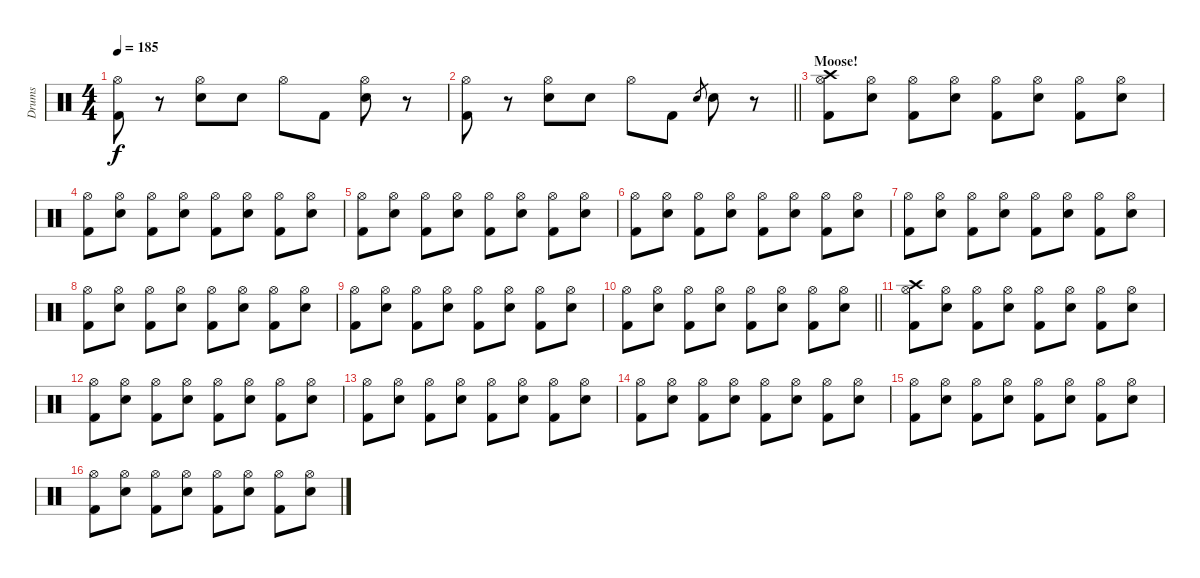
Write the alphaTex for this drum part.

\track ("Drums" "Drums") {instrument percussion}
\staff {score}
\articulation defaults
\ts (4 4)
\tempo 185
\clef neutral
\ks c
("Hi-Hat (open)" "Kick (hit) 2").8{dy f} r.8 ("Hi-Hat (open)" "Snare (hit) 2").8 "Snare (hit) 2".8 "Hi-Hat (open)".8 "Kick (hit) 2".8 ("Hi-Hat (open)" "Snare (hit) 2").8 r.8 |
\barLineRight lightlight
("Hi-Hat (open)" "Kick (hit) 2").8 r.8 ("Hi-Hat (open)" "Snare (hit) 2").8 "Snare (hit) 2".8 "Hi-Hat (open)".8 "Kick (hit) 2".8 "Snare (hit) 2".8{gr} "Snare (hit) 2".8 r.8 |
\section ("" "Moose!")
("Hi-Hat (open)" "Crash high (hit)" "Kick (hit) 2").8 ("Hi-Hat (open)" "Snare (hit) 2").8 ("Hi-Hat (open)" "Kick (hit) 2").8 ("Hi-Hat (open)" "Snare (hit) 2").8 ("Hi-Hat (open)" "Kick (hit) 2").8 ("Hi-Hat (open)" "Snare (hit) 2").8 ("Hi-Hat (open)" "Kick (hit) 2").8 ("Hi-Hat (open)" "Snare (hit) 2").8 |
("Hi-Hat (open)" "Kick (hit) 2").8 ("Hi-Hat (open)" "Snare (hit) 2").8 ("Hi-Hat (open)" "Kick (hit) 2").8 ("Hi-Hat (open)" "Snare (hit) 2").8 ("Hi-Hat (open)" "Kick (hit) 2").8 ("Hi-Hat (open)" "Snare (hit) 2").8 ("Hi-Hat (open)" "Kick (hit) 2").8 ("Hi-Hat (open)" "Snare (hit) 2").8 |
("Hi-Hat (open)" "Kick (hit) 2").8 ("Hi-Hat (open)" "Snare (hit) 2").8 ("Hi-Hat (open)" "Kick (hit) 2").8 ("Hi-Hat (open)" "Snare (hit) 2").8 ("Hi-Hat (open)" "Kick (hit) 2").8 ("Hi-Hat (open)" "Snare (hit) 2").8 ("Hi-Hat (open)" "Kick (hit) 2").8 ("Hi-Hat (open)" "Snare (hit) 2").8 |
("Hi-Hat (open)" "Kick (hit) 2").8 ("Hi-Hat (open)" "Snare (hit) 2").8 ("Hi-Hat (open)" "Kick (hit) 2").8 ("Hi-Hat (open)" "Snare (hit) 2").8 ("Hi-Hat (open)" "Kick (hit) 2").8 ("Hi-Hat (open)" "Snare (hit) 2").8 ("Hi-Hat (open)" "Kick (hit) 2").8 ("Hi-Hat (open)" "Snare (hit) 2").8 |
("Hi-Hat (open)" "Kick (hit) 2").8 ("Hi-Hat (open)" "Snare (hit) 2").8 ("Hi-Hat (open)" "Kick (hit) 2").8 ("Hi-Hat (open)" "Snare (hit) 2").8 ("Hi-Hat (open)" "Kick (hit) 2").8 ("Hi-Hat (open)" "Snare (hit) 2").8 ("Hi-Hat (open)" "Kick (hit) 2").8 ("Hi-Hat (open)" "Snare (hit) 2").8 |
("Hi-Hat (open)" "Kick (hit) 2").8 ("Hi-Hat (open)" "Snare (hit) 2").8 ("Hi-Hat (open)" "Kick (hit) 2").8 ("Hi-Hat (open)" "Snare (hit) 2").8 ("Hi-Hat (open)" "Kick (hit) 2").8 ("Hi-Hat (open)" "Snare (hit) 2").8 ("Hi-Hat (open)" "Kick (hit) 2").8 ("Hi-Hat (open)" "Snare (hit) 2").8 |
("Hi-Hat (open)" "Kick (hit) 2").8 ("Hi-Hat (open)" "Snare (hit) 2").8 ("Hi-Hat (open)" "Kick (hit) 2").8 ("Hi-Hat (open)" "Snare (hit) 2").8 ("Hi-Hat (open)" "Kick (hit) 2").8 ("Hi-Hat (open)" "Snare (hit) 2").8 ("Hi-Hat (open)" "Kick (hit) 2").8 ("Hi-Hat (open)" "Snare (hit) 2").8 |
\barLineRight lightlight
("Hi-Hat (open)" "Kick (hit) 2").8 ("Hi-Hat (open)" "Snare (hit) 2").8 ("Hi-Hat (open)" "Kick (hit) 2").8 ("Hi-Hat (open)" "Snare (hit) 2").8 ("Hi-Hat (open)" "Kick (hit) 2").8 ("Hi-Hat (open)" "Snare (hit) 2").8 ("Hi-Hat (open)" "Kick (hit) 2").8 ("Hi-Hat (open)" "Snare (hit) 2").8 |
("Hi-Hat (open)" "Crash high (hit)" "Kick (hit) 2").8 ("Hi-Hat (open)" "Snare (hit) 2").8 ("Hi-Hat (open)" "Kick (hit) 2").8 ("Hi-Hat (open)" "Snare (hit) 2").8 ("Hi-Hat (open)" "Kick (hit) 2").8 ("Hi-Hat (open)" "Snare (hit) 2").8 ("Hi-Hat (open)" "Kick (hit) 2").8 ("Hi-Hat (open)" "Snare (hit) 2").8 |
("Hi-Hat (open)" "Kick (hit) 2").8 ("Hi-Hat (open)" "Snare (hit) 2").8 ("Hi-Hat (open)" "Kick (hit) 2").8 ("Hi-Hat (open)" "Snare (hit) 2").8 ("Hi-Hat (open)" "Kick (hit) 2").8 ("Hi-Hat (open)" "Snare (hit) 2").8 ("Hi-Hat (open)" "Kick (hit) 2").8 ("Hi-Hat (open)" "Snare (hit) 2").8 |
("Hi-Hat (open)" "Kick (hit) 2").8 ("Hi-Hat (open)" "Snare (hit) 2").8 ("Hi-Hat (open)" "Kick (hit) 2").8 ("Hi-Hat (open)" "Snare (hit) 2").8 ("Hi-Hat (open)" "Kick (hit) 2").8 ("Hi-Hat (open)" "Snare (hit) 2").8 ("Hi-Hat (open)" "Kick (hit) 2").8 ("Hi-Hat (open)" "Snare (hit) 2").8 |
("Hi-Hat (open)" "Kick (hit) 2").8 ("Hi-Hat (open)" "Snare (hit) 2").8 ("Hi-Hat (open)" "Kick (hit) 2").8 ("Hi-Hat (open)" "Snare (hit) 2").8 ("Hi-Hat (open)" "Kick (hit) 2").8 ("Hi-Hat (open)" "Snare (hit) 2").8 ("Hi-Hat (open)" "Kick (hit) 2").8 ("Hi-Hat (open)" "Snare (hit) 2").8 |
("Hi-Hat (open)" "Kick (hit) 2").8 ("Hi-Hat (open)" "Snare (hit) 2").8 ("Hi-Hat (open)" "Kick (hit) 2").8 ("Hi-Hat (open)" "Snare (hit) 2").8 ("Hi-Hat (open)" "Kick (hit) 2").8 ("Hi-Hat (open)" "Snare (hit) 2").8 ("Hi-Hat (open)" "Kick (hit) 2").8 ("Hi-Hat (open)" "Snare (hit) 2").8 |
("Hi-Hat (open)" "Kick (hit) 2").8 ("Hi-Hat (open)" "Snare (hit) 2").8 ("Hi-Hat (open)" "Kick (hit) 2").8 ("Hi-Hat (open)" "Snare (hit) 2").8 ("Hi-Hat (open)" "Kick (hit) 2").8 ("Hi-Hat (open)" "Snare (hit) 2").8 ("Hi-Hat (open)" "Kick (hit) 2").8 ("Hi-Hat (open)" "Snare (hit) 2").8
